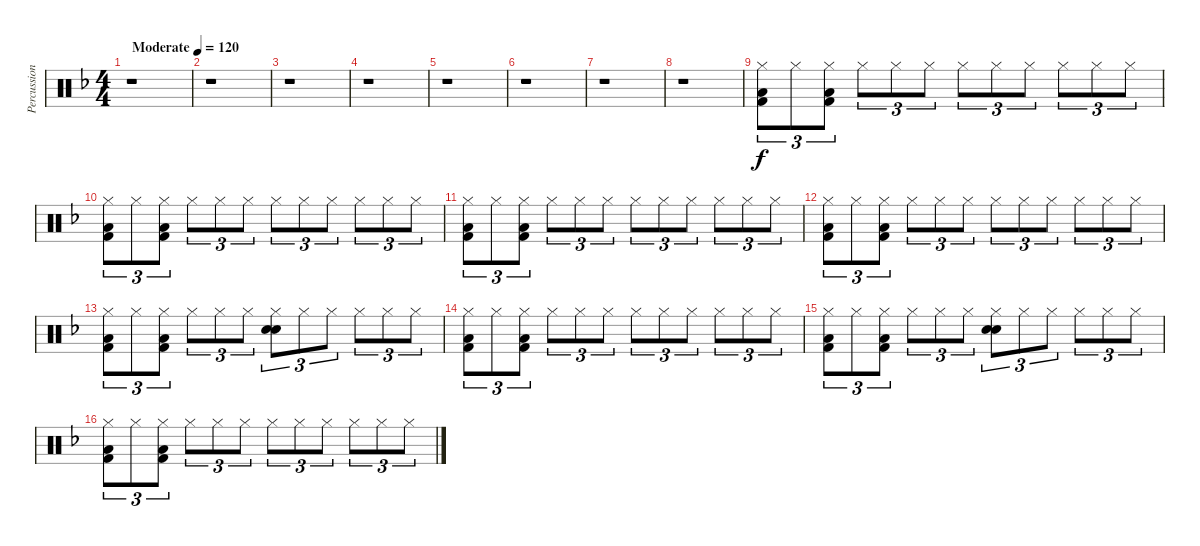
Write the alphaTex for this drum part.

\track ("Percussion" "Percussion") {instrument percussion}
\staff {score}
\articulation defaults
\ts (4 4)
\tempo (120 "Moderate")
\clef neutral
\ks dminor
r.1{dy f} |
r.1 |
r.1 |
r.1 |
r.1 |
r.1 |
r.1 |
r.1 |
("Hi-Hat (closed)" "Low Floor Tom (hit)" "Kick (hit) 2").8{tu (3 2) volume 13} "Hi-Hat (closed)".8{tu (3 2)} ("Hi-Hat (closed)" "Low Floor Tom (hit)" "Kick (hit) 2").8{tu (3 2)} "Hi-Hat (closed)".8{tu (3 2)} "Hi-Hat (closed)".8{tu (3 2)} "Hi-Hat (closed)".8{tu (3 2)} "Hi-Hat (closed)".8{tu (3 2)} "Hi-Hat (closed)".8{tu (3 2)} "Hi-Hat (closed)".8{tu (3 2)} "Hi-Hat (closed)".8{tu (3 2)} "Hi-Hat (closed)".8{tu (3 2)} "Hi-Hat (closed)".8{tu (3 2)} |
("Hi-Hat (closed)" "Low Floor Tom (hit)" "Kick (hit) 2").8{tu (3 2)} "Hi-Hat (closed)".8{tu (3 2)} ("Hi-Hat (closed)" "Low Floor Tom (hit)" "Kick (hit) 2").8{tu (3 2)} "Hi-Hat (closed)".8{tu (3 2)} "Hi-Hat (closed)".8{tu (3 2)} "Hi-Hat (closed)".8{tu (3 2)} "Hi-Hat (closed)".8{tu (3 2)} "Hi-Hat (closed)".8{tu (3 2)} "Hi-Hat (closed)".8{tu (3 2)} "Hi-Hat (closed)".8{tu (3 2)} "Hi-Hat (closed)".8{tu (3 2)} "Hi-Hat (closed)".8{tu (3 2)} |
("Hi-Hat (closed)" "Low Floor Tom (hit)" "Kick (hit) 2").8{tu (3 2)} "Hi-Hat (closed)".8{tu (3 2)} ("Hi-Hat (closed)" "Low Floor Tom (hit)" "Kick (hit) 2").8{tu (3 2)} "Hi-Hat (closed)".8{tu (3 2)} "Hi-Hat (closed)".8{tu (3 2)} "Hi-Hat (closed)".8{tu (3 2)} "Hi-Hat (closed)".8{tu (3 2)} "Hi-Hat (closed)".8{tu (3 2)} "Hi-Hat (closed)".8{tu (3 2)} "Hi-Hat (closed)".8{tu (3 2)} "Hi-Hat (closed)".8{tu (3 2)} "Hi-Hat (closed)".8{tu (3 2)} |
("Hi-Hat (closed)" "Low Floor Tom (hit)" "Kick (hit) 2").8{tu (3 2)} "Hi-Hat (closed)".8{tu (3 2)} ("Hi-Hat (closed)" "Low Floor Tom (hit)" "Kick (hit) 2").8{tu (3 2)} "Hi-Hat (closed)".8{tu (3 2)} "Hi-Hat (closed)".8{tu (3 2)} "Hi-Hat (closed)".8{tu (3 2)} "Hi-Hat (closed)".8{tu (3 2)} "Hi-Hat (closed)".8{tu (3 2)} "Hi-Hat (closed)".8{tu (3 2)} "Hi-Hat (closed)".8{tu (3 2)} "Hi-Hat (closed)".8{tu (3 2)} "Hi-Hat (closed)".8{tu (3 2)} |
("Hi-Hat (closed)" "Low Floor Tom (hit)" "Kick (hit) 2").8{tu (3 2)} "Hi-Hat (closed)".8{tu (3 2)} ("Hi-Hat (closed)" "Low Floor Tom (hit)" "Kick (hit) 2").8{tu (3 2)} "Hi-Hat (closed)".8{tu (3 2)} "Hi-Hat (closed)".8{tu (3 2)} "Hi-Hat (closed)".8{tu (3 2)} ("Hi-Hat (closed)" "Snare (hit) 2" "Electric Snare (hit)").8{tu (3 2)} "Hi-Hat (closed)".8{tu (3 2)} "Hi-Hat (closed)".8{tu (3 2)} "Hi-Hat (closed)".8{tu (3 2)} "Hi-Hat (closed)".8{tu (3 2)} "Hi-Hat (closed)".8{tu (3 2)} |
("Hi-Hat (closed)" "Low Floor Tom (hit)" "Kick (hit) 2").8{tu (3 2)} "Hi-Hat (closed)".8{tu (3 2)} ("Hi-Hat (closed)" "Low Floor Tom (hit)" "Kick (hit) 2").8{tu (3 2)} "Hi-Hat (closed)".8{tu (3 2)} "Hi-Hat (closed)".8{tu (3 2)} "Hi-Hat (closed)".8{tu (3 2)} "Hi-Hat (closed)".8{tu (3 2)} "Hi-Hat (closed)".8{tu (3 2)} "Hi-Hat (closed)".8{tu (3 2)} "Hi-Hat (closed)".8{tu (3 2)} "Hi-Hat (closed)".8{tu (3 2)} "Hi-Hat (closed)".8{tu (3 2)} |
("Hi-Hat (closed)" "Low Floor Tom (hit)" "Kick (hit) 2").8{tu (3 2)} "Hi-Hat (closed)".8{tu (3 2)} ("Hi-Hat (closed)" "Low Floor Tom (hit)" "Kick (hit) 2").8{tu (3 2)} "Hi-Hat (closed)".8{tu (3 2)} "Hi-Hat (closed)".8{tu (3 2)} "Hi-Hat (closed)".8{tu (3 2)} ("Hi-Hat (closed)" "Snare (hit) 2" "Electric Snare (hit)").8{tu (3 2)} "Hi-Hat (closed)".8{tu (3 2)} "Hi-Hat (closed)".8{tu (3 2)} "Hi-Hat (closed)".8{tu (3 2)} "Hi-Hat (closed)".8{tu (3 2)} "Hi-Hat (closed)".8{tu (3 2)} |
("Hi-Hat (closed)" "Low Floor Tom (hit)" "Kick (hit) 2").8{tu (3 2)} "Hi-Hat (closed)".8{tu (3 2)} ("Hi-Hat (closed)" "Low Floor Tom (hit)" "Kick (hit) 2").8{tu (3 2)} "Hi-Hat (closed)".8{tu (3 2)} "Hi-Hat (closed)".8{tu (3 2)} "Hi-Hat (closed)".8{tu (3 2)} "Hi-Hat (closed)".8{tu (3 2)} "Hi-Hat (closed)".8{tu (3 2)} "Hi-Hat (closed)".8{tu (3 2)} "Hi-Hat (closed)".8{tu (3 2)} "Hi-Hat (closed)".8{tu (3 2)} "Hi-Hat (closed)".8{tu (3 2)}
